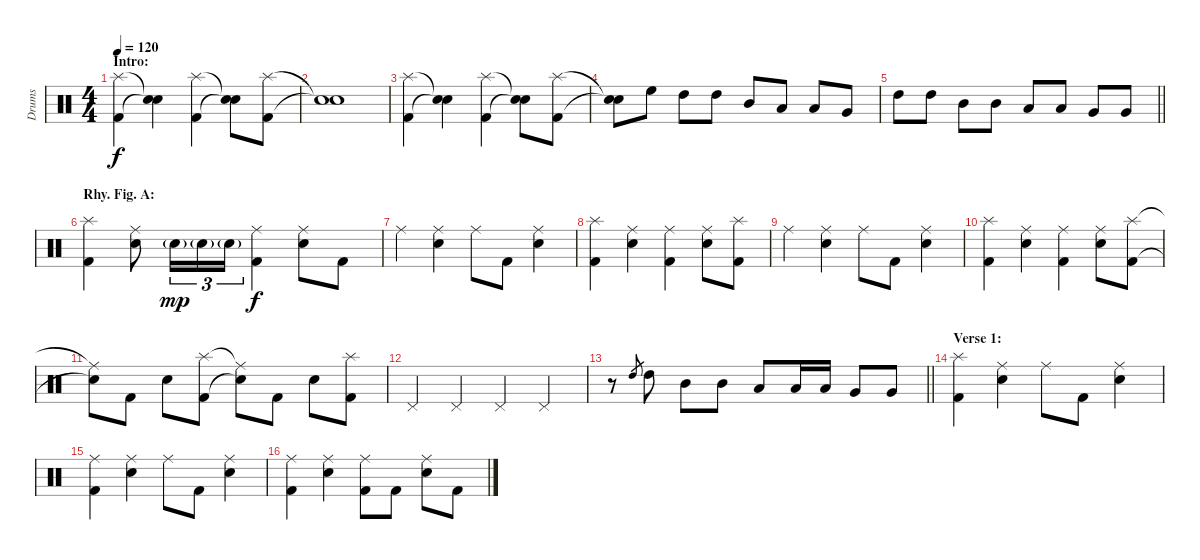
\track ("Drums" "Drums") {instrument percussion}
\staff {score}
\articulation defaults
\ts (4 4)
\section ("" "Intro:")
\tempo 120
\clef neutral
\ks c
("Splash (hit)" "Kick (hit) 2").4{dy f} ("Snare (hit)"{t} "Snare (hit)"{t}).4 ("Splash (hit)" "Kick (hit) 2").4 ("Snare (hit)"{t} "Snare (hit)"{t}).8 ("Splash (hit)" "Kick (hit) 2").8 |
("Snare (hit)"{t} "Snare (hit)"{t}).1 |
("Splash (hit)" "Kick (hit) 2").4 ("Snare (hit)"{t} "Snare (hit)"{t}).4 ("Splash (hit)" "Kick (hit) 2").4 ("Snare (hit)"{t} "Snare (hit)"{t}).8 ("Splash (hit)" "Kick (hit) 2").8 |
("Snare (hit)"{t} "Snare (hit)"{t}).8 "High Floor Tom (hit)".8 "High Tom (hit)".8 "High Tom (hit)".8 "Mid Tom (hit)".8 "Low Tom (hit)".8 "Low Tom (hit)".8 "Very Low Tom (hit)".8 |
\barLineRight lightlight "High Tom (hit)".8 "High Tom (hit)".8 "Mid Tom (hit)".8 "Mid Tom (hit)".8 "Low Tom (hit)".8 "Low Tom (hit)".8 "Very Low Tom (hit)".8 "Very Low Tom (hit)".8
|
\section ("" "Rhy. Fig. A:")
("Splash (hit)" "Kick (hit) 2").4 ("Ride (middle)" "Electric Snare (hit)").8 "Electric Snare (hit)"{g}.16{tu (3 2) dy mp} "Electric Snare (hit)"{g}.16{tu (3 2)} "Electric Snare (hit)"{g}.16{tu (3 2)} ("Ride (middle)" "Kick (hit) 2").4{dy f} ("Ride (middle)" "Electric Snare (hit)").8 "Kick (hit) 2".8 |
"Ride (middle)".4 ("Ride (middle)" "Electric Snare (hit)").4 "Ride (middle)".8 "Kick (hit) 2".8 ("Ride (middle)" "Electric Snare (hit)").4 |
("Splash (hit)" "Kick (hit) 2").4 ("Ride (middle)" "Electric Snare (hit)").4 ("Ride (middle)" "Kick (hit) 2").4 ("Ride (middle)" "Electric Snare (hit)").8 ("Splash (hit)" "Kick (hit) 2").8 |
"Ride (middle)".4 ("Ride (middle)" "Electric Snare (hit)").4 "Ride (middle)".8 "Kick (hit) 2".8 ("Ride (middle)" "Electric Snare (hit)").4 |
("Splash (hit)" "Kick (hit) 2").4 ("Ride (middle)" "Electric Snare (hit)").4 ("Ride (middle)" "Kick (hit) 2").4 ("Ride (middle)" "Electric Snare (hit)").8 ("Splash (hit)" "Kick (hit) 2").8 |
("Ride (middle)"{t} "Snare (hit)"{t}).8 "Kick (hit) 2".8 "Electric Snare (hit)".8 ("Splash (hit)" "Kick (hit) 2").8 ("Ride (middle)"{t} "Snare (hit)"{t}).8 "Kick (hit) 2".8 "Electric Snare (hit)".8 ("Splash (hit)" "Kick (hit) 2").8 |
"Pedal Hi-Hat (hit)".4 "Pedal Hi-Hat (hit)".4 "Pedal Hi-Hat (hit)".4 "Pedal Hi-Hat (hit)".4 |
\barLineRight lightlight
r.8 "High Tom (hit)".8{gr} "High Tom (hit)".8 "Mid Tom (hit)".8 "Mid Tom (hit)".8 "Low Tom (hit)".8 "Low Tom (hit)".16 "Low Tom (hit)".16 "Very Low Tom (hit)".8 "Very Low Tom (hit)".8 |
\section ("" "Verse 1:")
("Splash (hit)" "Kick (hit) 2").4 ("Ride (middle)" "Electric Snare (hit)").4 "Ride (middle)".8 "Kick (hit) 2".8 ("Ride (middle)" "Electric Snare (hit)").4 |
("Ride (middle)" "Kick (hit) 2").4 ("Ride (middle)" "Electric Snare (hit)").4 "Ride (middle)".8 "Kick (hit) 2".8 ("Ride (middle)" "Electric Snare (hit)").4 |
("Ride (middle)" "Kick (hit) 2").4 ("Ride (middle)" "Electric Snare (hit)").4 ("Ride (middle)" "Kick (hit) 2").8 "Kick (hit) 2".8 ("Ride (middle)" "Electric Snare (hit)").8 "Kick (hit) 2".8
